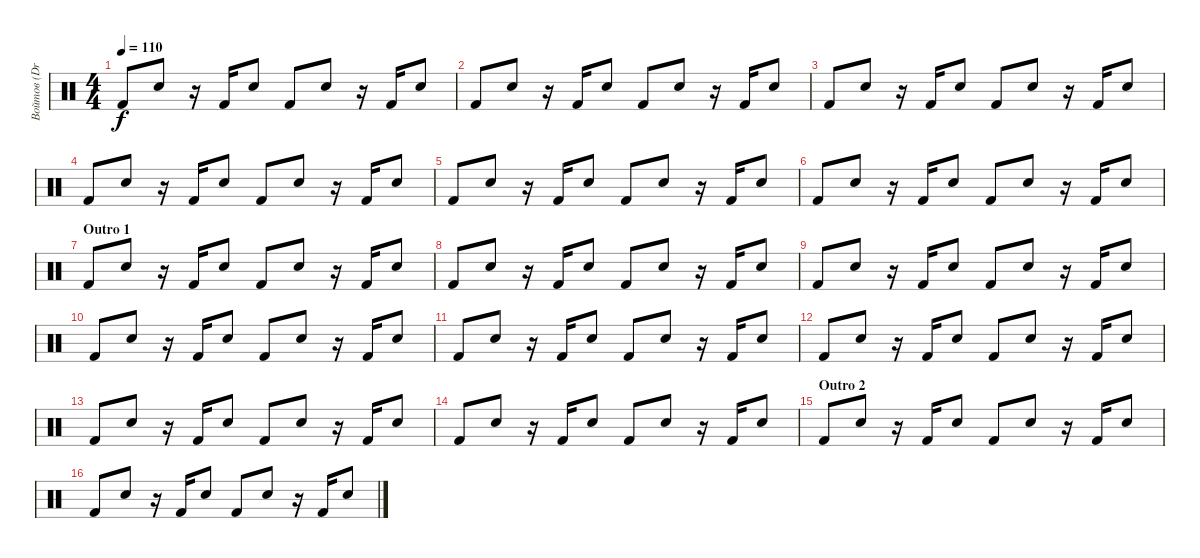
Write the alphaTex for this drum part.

\track ("Войтов (Drums)" "Войтов (Dr") {instrument percussion}
\staff {score}
\articulation defaults
\ts (4 4)
\tempo 110
\clef neutral
\ks c "Kick (hit) 2".8{dy f} "Electric Snare (hit)".8
r.16 "Kick (hit) 2".16 "Electric Snare (hit)".8 "Kick (hit) 2".8 "Electric Snare (hit)".8 r.16 "Kick (hit) 2".16 "Electric Snare (hit)".8 |
"Kick (hit) 2".8 "Electric Snare (hit)".8 r.16 "Kick (hit) 2".16 "Electric Snare (hit)".8 "Kick (hit) 2".8 "Electric Snare (hit)".8 r.16 "Kick (hit) 2".16 "Electric Snare (hit)".8 |
"Kick (hit) 2".8 "Electric Snare (hit)".8 r.16 "Kick (hit) 2".16 "Electric Snare (hit)".8 "Kick (hit) 2".8 "Electric Snare (hit)".8 r.16 "Kick (hit) 2".16 "Electric Snare (hit)".8 |
"Kick (hit) 2".8 "Electric Snare (hit)".8 r.16 "Kick (hit) 2".16 "Electric Snare (hit)".8 "Kick (hit) 2".8 "Electric Snare (hit)".8 r.16 "Kick (hit) 2".16 "Electric Snare (hit)".8 |
"Kick (hit) 2".8 "Electric Snare (hit)".8 r.16 "Kick (hit) 2".16 "Electric Snare (hit)".8 "Kick (hit) 2".8 "Electric Snare (hit)".8 r.16 "Kick (hit) 2".16 "Electric Snare (hit)".8 |
"Kick (hit) 2".8 "Electric Snare (hit)".8 r.16 "Kick (hit) 2".16 "Electric Snare (hit)".8 "Kick (hit) 2".8 "Electric Snare (hit)".8 r.16 "Kick (hit) 2".16 "Electric Snare (hit)".8 |
\section ("" "Outro 1")
"Kick (hit) 2".8 "Electric Snare (hit)".8 r.16 "Kick (hit) 2".16 "Electric Snare (hit)".8 "Kick (hit) 2".8 "Electric Snare (hit)".8 r.16 "Kick (hit) 2".16 "Electric Snare (hit)".8 |
"Kick (hit) 2".8 "Electric Snare (hit)".8 r.16 "Kick (hit) 2".16 "Electric Snare (hit)".8 "Kick (hit) 2".8 "Electric Snare (hit)".8 r.16 "Kick (hit) 2".16 "Electric Snare (hit)".8 |
"Kick (hit) 2".8 "Electric Snare (hit)".8 r.16 "Kick (hit) 2".16 "Electric Snare (hit)".8 "Kick (hit) 2".8 "Electric Snare (hit)".8 r.16 "Kick (hit) 2".16 "Electric Snare (hit)".8 |
"Kick (hit) 2".8 "Electric Snare (hit)".8 r.16 "Kick (hit) 2".16 "Electric Snare (hit)".8 "Kick (hit) 2".8 "Electric Snare (hit)".8 r.16 "Kick (hit) 2".16 "Electric Snare (hit)".8 |
"Kick (hit) 2".8 "Electric Snare (hit)".8 r.16 "Kick (hit) 2".16 "Electric Snare (hit)".8 "Kick (hit) 2".8 "Electric Snare (hit)".8 r.16 "Kick (hit) 2".16 "Electric Snare (hit)".8 |
"Kick (hit) 2".8 "Electric Snare (hit)".8 r.16 "Kick (hit) 2".16 "Electric Snare (hit)".8 "Kick (hit) 2".8 "Electric Snare (hit)".8 r.16 "Kick (hit) 2".16 "Electric Snare (hit)".8 |
"Kick (hit) 2".8 "Electric Snare (hit)".8 r.16 "Kick (hit) 2".16 "Electric Snare (hit)".8 "Kick (hit) 2".8 "Electric Snare (hit)".8 r.16 "Kick (hit) 2".16 "Electric Snare (hit)".8 |
"Kick (hit) 2".8 "Electric Snare (hit)".8 r.16 "Kick (hit) 2".16 "Electric Snare (hit)".8 "Kick (hit) 2".8 "Electric Snare (hit)".8 r.16 "Kick (hit) 2".16 "Electric Snare (hit)".8 |
\section ("" "Outro 2")
"Kick (hit) 2".8 "Electric Snare (hit)".8 r.16 "Kick (hit) 2".16 "Electric Snare (hit)".8 "Kick (hit) 2".8 "Electric Snare (hit)".8 r.16 "Kick (hit) 2".16 "Electric Snare (hit)".8 |
"Kick (hit) 2".8 "Electric Snare (hit)".8 r.16 "Kick (hit) 2".16 "Electric Snare (hit)".8 "Kick (hit) 2".8 "Electric Snare (hit)".8 r.16 "Kick (hit) 2".16 "Electric Snare (hit)".8
